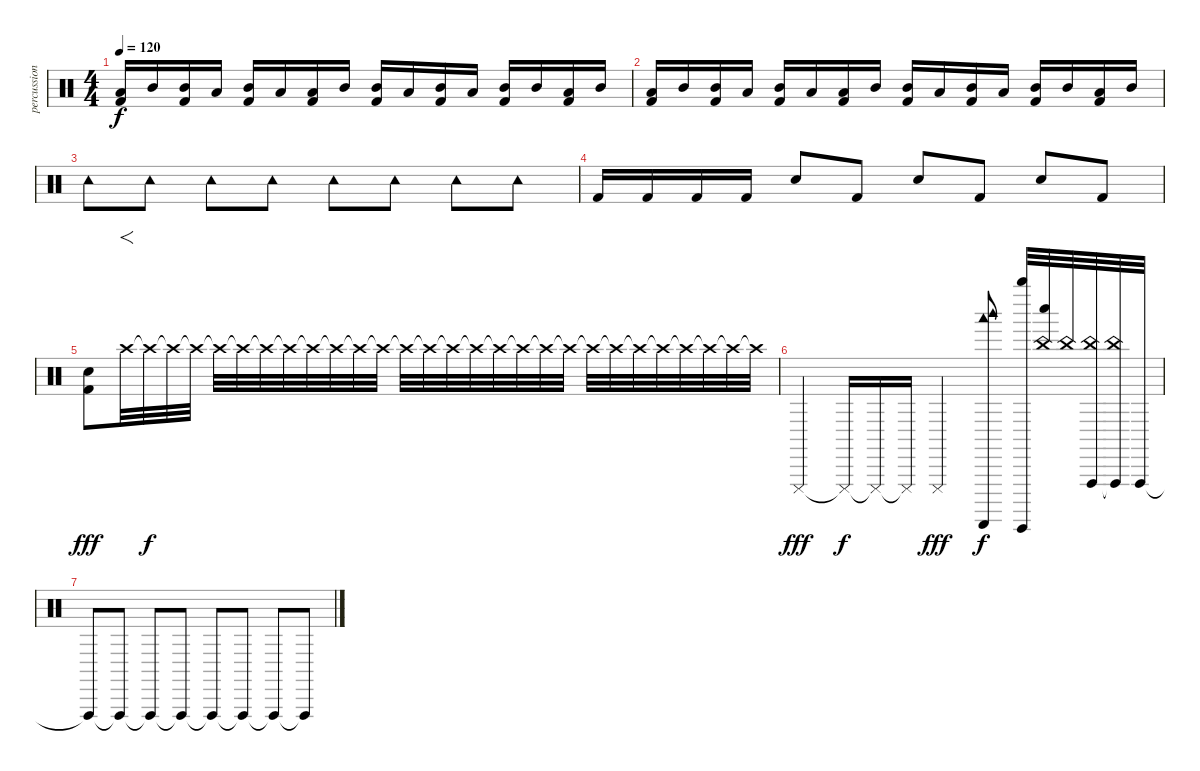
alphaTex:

\track ("percussion" "percussion") {instrument percussion}
\staff {score}
\articulation defaults
\ts (4 4)
\tempo 120
\clef neutral
\ks c
("Low Tom (hit)" "Kick (hit) 2").16{dy f} "Mid Tom (hit)".16 ("Mid Tom (hit)" "Kick (hit) 2").16 "Low Tom (hit)".16 ("Mid Tom (hit)" "Kick (hit) 2").16 "Low Tom (hit)".16 ("Low Tom (hit)" "Kick (hit) 2").16 "Mid Tom (hit)".16 ("Mid Tom (hit)" "Kick (hit) 2").16 "Low Tom (hit)".16 ("Mid Tom (hit)" "Kick (hit) 2").16 "Low Tom (hit)".16 ("Mid Tom (hit)" "Kick (hit) 2").16 "Mid Tom (hit)".16 ("Low Tom (hit)" "Kick (hit) 2").16 "Mid Tom (hit)".16 |
("Low Tom (hit)" "Kick (hit) 2").16 "Mid Tom (hit)".16 ("Mid Tom (hit)" "Kick (hit) 2").16 "Low Tom (hit)".16 ("Mid Tom (hit)" "Kick (hit) 2").16 "Low Tom (hit)".16 ("Low Tom (hit)" "Kick (hit) 2").16 "Mid Tom (hit)".16 ("Mid Tom (hit)" "Kick (hit) 2").16 "Low Tom (hit)".16 ("Mid Tom (hit)" "Kick (hit) 2").16 "Low Tom (hit)".16 ("Mid Tom (hit)" "Kick (hit) 2").16 "Mid Tom (hit)".16 ("Low Tom (hit)" "Kick (hit) 2").16 "Mid Tom (hit)".16 |
"Tambourine (hit)".8 "Tambourine (hit)".8 "Tambourine (hit)".8 "Tambourine (hit)".8 "Tambourine (hit)".8 "Tambourine (hit)".8 "Tambourine (hit)".8 "Tambourine (hit)".8 |
"Kick (hit) 2".16 "Kick (hit) 2".16 "Kick (hit) 2".16 "Kick (hit) 2".16 "Snare (hit) 2".8 "Kick (hit) 2".8 "Snare (hit) 2".8 "Kick (hit) 2".8 "Snare (hit) 2".8 "Kick (hit) 2".8 |
("Snare (hit) 2" "Kick (hit) 2").8{dy fff} "Crash high (hit)".32{f} "Crash high (hit)"{t}.32{dy f} "Crash high (hit)"{t}.32 "Crash high (hit)"{t}.32 "Crash high (hit)"{t}.32 "Crash high (hit)"{t}.32 "Crash high (hit)"{t}.32 "Crash high (hit)"{t}.32 "Crash high (hit)"{t}.32 "Crash high (hit)"{t}.32 "Crash high (hit)"{t}.32 "Crash high (hit)"{t}.32 "Crash high (hit)"{t}.32 "Crash high (hit)"{t}.32 "Crash high (hit)"{t}.32 "Crash high (hit)"{t}.32 "Crash high (hit)"{t}.32 "Crash high (hit)"{t}.32 "Crash high (hit)"{t}.32 "Crash high (hit)"{t}.32 "Crash high (hit)"{t}.32 "Crash high (hit)"{t}.32 "Crash high (hit)"{t}.32 "Crash high (hit)"{t}.32 "Crash high (hit)"{t}.32 "Crash high (hit)"{t}.32 "Crash high (hit)"{t}.32 "Crash high (hit)"{t}.32 |
"Cuica (mute)".4{dy fff} "Cuica (mute)"{t}.16{dy f} "Cuica (mute)"{t}.16 "Cuica (mute)"{t}.16 "Cuica (mute)".4{dy fff} ("Woodblock high (hit)" "Woodblock low (hit)" "Guiro (scrap-return)").8{dy f} ("Whistle high (hit)" "Guiro (hit)").32 ("Whistle low (hit)" "China (hit)").32 "China (hit)".32 ("Vibraslap (hit)" "China (hit)").32 ("Vibraslap (hit)"{t} "China (hit)").32 "Vibraslap (hit)".32 |
"Vibraslap (hit)"{t}.8 "Vibraslap (hit)"{t}.8 "Vibraslap (hit)"{t}.8 "Vibraslap (hit)"{t}.8 "Vibraslap (hit)"{t}.8 "Vibraslap (hit)"{t}.8 "Vibraslap (hit)"{t}.8 "Vibraslap (hit)"{t}.8
